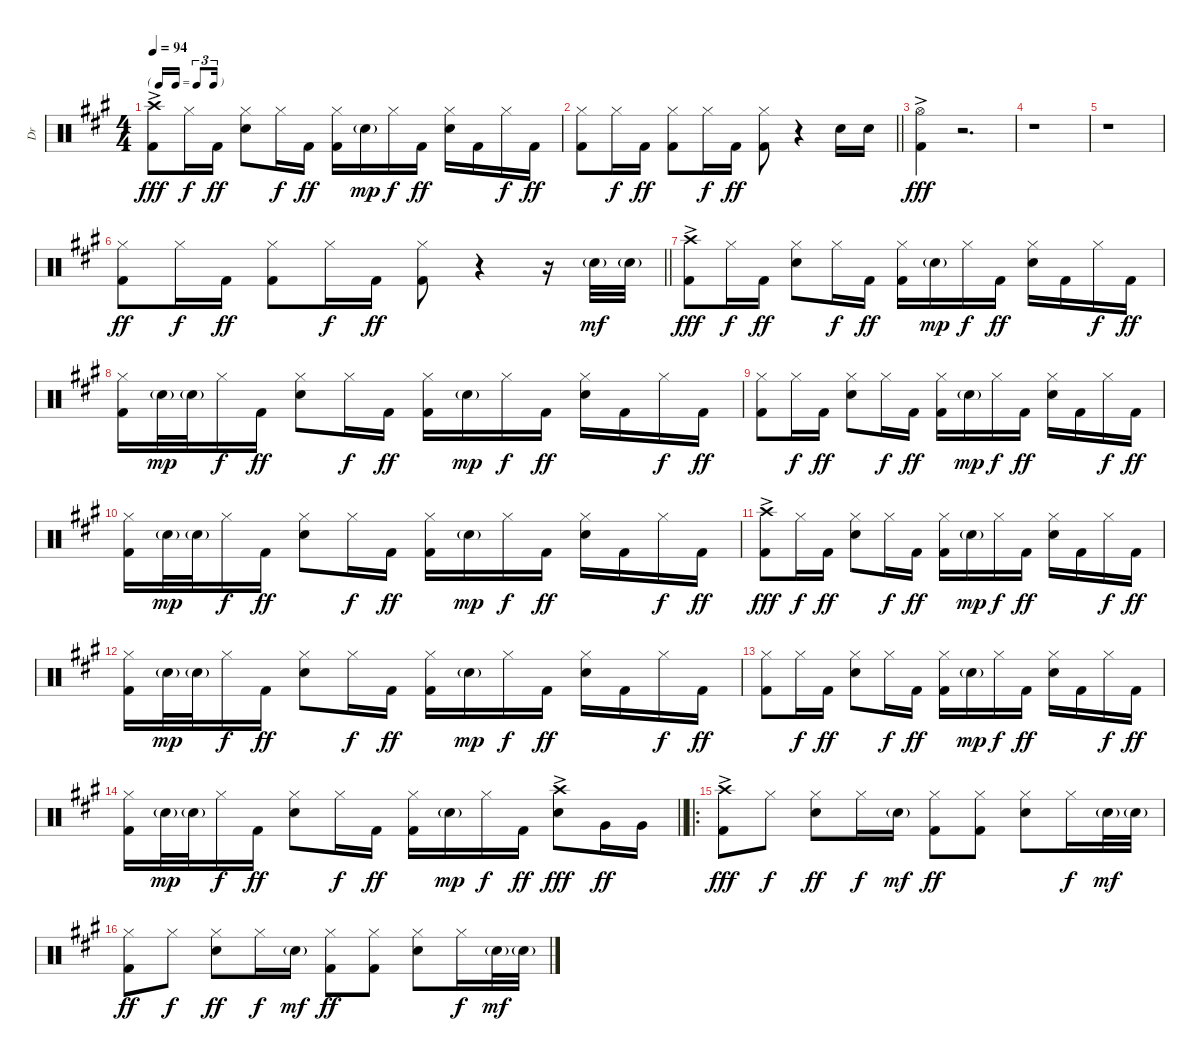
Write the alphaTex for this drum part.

\track ("Dr" "Dr") {instrument percussion}
\staff {score}
\articulation defaults
\ts (4 4)
\tf triplet16th
\tempo 94
\clef neutral
\ks a
("Crash high (hit)"{ac} "Kick (hit) 2"{ac}).8{dy fff} "Hi-Hat (closed)".16{dy f} "Kick (hit) 2".16{dy ff} ("Hi-Hat (closed)" "Electric Snare (hit)").8 "Hi-Hat (closed)".16{dy f} "Kick (hit) 2".16{dy ff} ("Hi-Hat (closed)" "Kick (hit) 2").16 "Electric Snare (hit)"{g}.16{dy mp} "Hi-Hat (closed)".16{dy f} "Kick (hit) 2".16{dy ff} ("Hi-Hat (closed)" "Electric Snare (hit)").16 "Kick (hit) 2".16 "Hi-Hat (closed)".16{dy f} "Kick (hit) 2".16{dy ff} |
\barLineRight lightlight
("Hi-Hat (closed)" "Kick (hit) 2").8 "Hi-Hat (closed)".16{dy f} "Kick (hit) 2".16{dy ff} ("Hi-Hat (closed)" "Kick (hit) 2").8 "Hi-Hat (closed)".16{dy f} "Kick (hit) 2".16{dy ff} ("Hi-Hat (closed)" "Kick (hit) 2").8 r.4 "Electric Snare (hit)".16 "Electric Snare (hit)".16 |
("Hi-Hat (open)"{ac} "Kick (hit) 2"{ac}).4{dy fff} r.2{d} |
r.1 |
r.1 |
\barLineRight lightlight
("Hi-Hat (closed)" "Kick (hit) 2").8{dy ff} "Hi-Hat (closed)".16{dy f} "Kick (hit) 2".16{dy ff} ("Hi-Hat (closed)" "Kick (hit) 2").8 "Hi-Hat (closed)".16{dy f} "Kick (hit) 2".16{dy ff} ("Hi-Hat (closed)" "Kick (hit) 2").8 r.4 r.16 "Electric Snare (hit)"{g}.32{dy mf} "Electric Snare (hit)"{g}.32 |
("Crash high (hit)"{ac} "Kick (hit) 2"{ac}).8{dy fff} "Hi-Hat (closed)".16{dy f} "Kick (hit) 2".16{dy ff} ("Hi-Hat (closed)" "Electric Snare (hit)").8 "Hi-Hat (closed)".16{dy f} "Kick (hit) 2".16{dy ff} ("Hi-Hat (closed)" "Kick (hit) 2").16 "Electric Snare (hit)"{g}.16{dy mp} "Hi-Hat (closed)".16{dy f} "Kick (hit) 2".16{dy ff} ("Hi-Hat (closed)" "Electric Snare (hit)").16 "Kick (hit) 2".16 "Hi-Hat (closed)".16{dy f} "Kick (hit) 2".16{dy ff} |
("Hi-Hat (closed)" "Kick (hit) 2").16 "Electric Snare (hit)"{g}.32{dy mp} "Electric Snare (hit)"{g}.32 "Hi-Hat (closed)".16{dy f} "Kick (hit) 2".16{dy ff} ("Hi-Hat (closed)" "Electric Snare (hit)").8 "Hi-Hat (closed)".16{dy f} "Kick (hit) 2".16{dy ff} ("Hi-Hat (closed)" "Kick (hit) 2").16 "Electric Snare (hit)"{g}.16{dy mp} "Hi-Hat (closed)".16{dy f} "Kick (hit) 2".16{dy ff} ("Hi-Hat (closed)" "Electric Snare (hit)").16 "Kick (hit) 2".16 "Hi-Hat (closed)".16{dy f} "Kick (hit) 2".16{dy ff} |
("Hi-Hat (closed)" "Kick (hit) 2").8 "Hi-Hat (closed)".16{dy f} "Kick (hit) 2".16{dy ff} ("Hi-Hat (closed)" "Electric Snare (hit)").8 "Hi-Hat (closed)".16{dy f} "Kick (hit) 2".16{dy ff} ("Hi-Hat (closed)" "Kick (hit) 2").16 "Electric Snare (hit)"{g}.16{dy mp} "Hi-Hat (closed)".16{dy f} "Kick (hit) 2".16{dy ff} ("Hi-Hat (closed)" "Electric Snare (hit)").16 "Kick (hit) 2".16 "Hi-Hat (closed)".16{dy f} "Kick (hit) 2".16{dy ff} |
("Hi-Hat (closed)" "Kick (hit) 2").16 "Electric Snare (hit)"{g}.32{dy mp} "Electric Snare (hit)"{g}.32 "Hi-Hat (closed)".16{dy f} "Kick (hit) 2".16{dy ff} ("Hi-Hat (closed)" "Electric Snare (hit)").8 "Hi-Hat (closed)".16{dy f} "Kick (hit) 2".16{dy ff} ("Hi-Hat (closed)" "Kick (hit) 2").16 "Electric Snare (hit)"{g}.16{dy mp} "Hi-Hat (closed)".16{dy f} "Kick (hit) 2".16{dy ff} ("Hi-Hat (closed)" "Electric Snare (hit)").16 "Kick (hit) 2".16 "Hi-Hat (closed)".16{dy f} "Kick (hit) 2".16{dy ff} |
("Crash high (hit)"{ac} "Kick (hit) 2"{ac}).8{dy fff} "Hi-Hat (closed)".16{dy f} "Kick (hit) 2".16{dy ff} ("Hi-Hat (closed)" "Electric Snare (hit)").8 "Hi-Hat (closed)".16{dy f} "Kick (hit) 2".16{dy ff} ("Hi-Hat (closed)" "Kick (hit) 2").16 "Electric Snare (hit)"{g}.16{dy mp} "Hi-Hat (closed)".16{dy f} "Kick (hit) 2".16{dy ff} ("Hi-Hat (closed)" "Electric Snare (hit)").16 "Kick (hit) 2".16 "Hi-Hat (closed)".16{dy f} "Kick (hit) 2".16{dy ff} |
("Hi-Hat (closed)" "Kick (hit) 2").16 "Electric Snare (hit)"{g}.32{dy mp} "Electric Snare (hit)"{g}.32 "Hi-Hat (closed)".16{dy f} "Kick (hit) 2".16{dy ff} ("Hi-Hat (closed)" "Electric Snare (hit)").8 "Hi-Hat (closed)".16{dy f} "Kick (hit) 2".16{dy ff} ("Hi-Hat (closed)" "Kick (hit) 2").16 "Electric Snare (hit)"{g}.16{dy mp} "Hi-Hat (closed)".16{dy f} "Kick (hit) 2".16{dy ff} ("Hi-Hat (closed)" "Electric Snare (hit)").16 "Kick (hit) 2".16 "Hi-Hat (closed)".16{dy f} "Kick (hit) 2".16{dy ff} |
("Hi-Hat (closed)" "Kick (hit) 2").8 "Hi-Hat (closed)".16{dy f} "Kick (hit) 2".16{dy ff} ("Hi-Hat (closed)" "Electric Snare (hit)").8 "Hi-Hat (closed)".16{dy f} "Kick (hit) 2".16{dy ff} ("Hi-Hat (closed)" "Kick (hit) 2").16 "Electric Snare (hit)"{g}.16{dy mp} "Hi-Hat (closed)".16{dy f} "Kick (hit) 2".16{dy ff} ("Hi-Hat (closed)" "Electric Snare (hit)").16 "Kick (hit) 2".16 "Hi-Hat (closed)".16{dy f} "Kick (hit) 2".16{dy ff} |
\barLineRight lightlight
("Hi-Hat (closed)" "Kick (hit) 2").16 "Electric Snare (hit)"{g}.32{dy mp} "Electric Snare (hit)"{g}.32 "Hi-Hat (closed)".16{dy f} "Kick (hit) 2".16{dy ff} ("Hi-Hat (closed)" "Electric Snare (hit)").8 "Hi-Hat (closed)".16{dy f} "Kick (hit) 2".16{dy ff} ("Hi-Hat (closed)" "Kick (hit) 2").16 "Electric Snare (hit)"{g}.16{dy mp} "Hi-Hat (closed)".16{dy f} "Kick (hit) 2".16{dy ff} ("Crash high (hit)"{ac} "Electric Snare (hit)"{ac}).8{dy fff} "Very Low Tom (hit)".16{dy ff} "Very Low Tom (hit)".16 |
\ro
("Crash high (hit)"{ac} "Kick (hit) 2"{ac}).8{dy fff} "Hi-Hat (closed)".8{dy f} ("Hi-Hat (closed)" "Electric Snare (hit)").8{dy ff} "Hi-Hat (closed)".16{dy f} "Electric Snare (hit)"{g}.16{dy mf} ("Hi-Hat (closed)" "Kick (hit) 2").8{dy ff} ("Hi-Hat (closed)" "Kick (hit) 2").8 ("Hi-Hat (closed)" "Electric Snare (hit)").8 "Hi-Hat (closed)".16{dy f} "Electric Snare (hit)"{g}.32{dy mf} "Electric Snare (hit)"{g}.32 |
("Hi-Hat (closed)" "Kick (hit) 2").8{dy ff} "Hi-Hat (closed)".8{dy f} ("Hi-Hat (closed)" "Electric Snare (hit)").8{dy ff} "Hi-Hat (closed)".16{dy f} "Electric Snare (hit)"{g}.16{dy mf} ("Hi-Hat (closed)" "Kick (hit) 2").8{dy ff} ("Hi-Hat (closed)" "Kick (hit) 2").8 ("Hi-Hat (closed)" "Electric Snare (hit)").8 "Hi-Hat (closed)".16{dy f} "Electric Snare (hit)"{g}.32{dy mf} "Electric Snare (hit)"{g}.32
